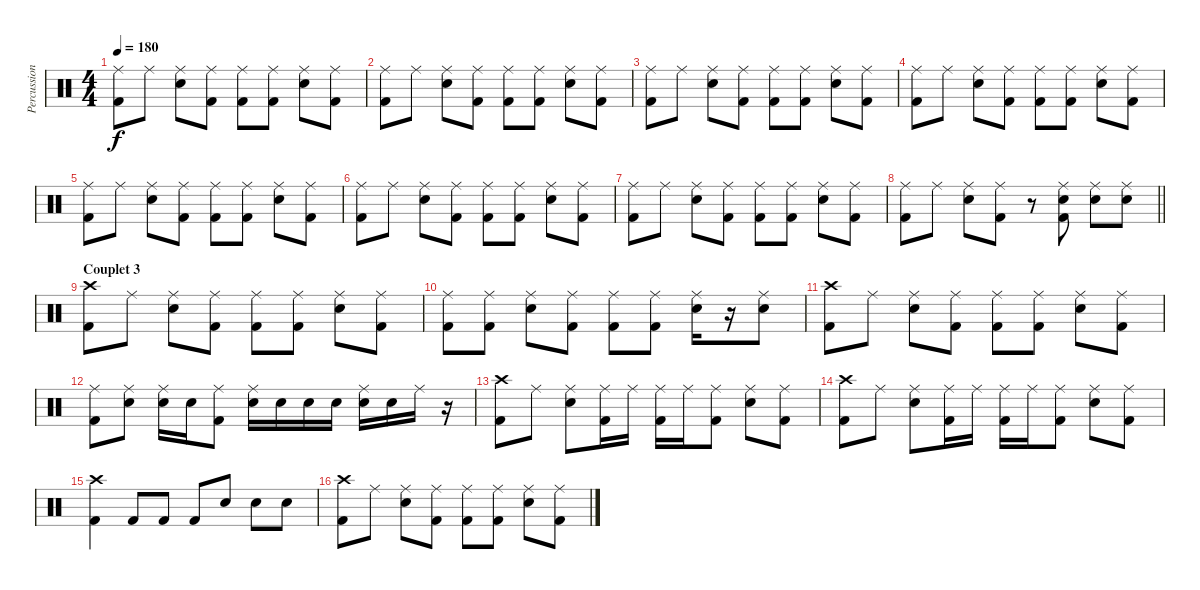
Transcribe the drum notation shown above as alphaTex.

\track ("Percussions" "Percussion") {instrument percussion}
\staff {score}
\articulation defaults
\ts (4 4)
\tempo 180
\clef neutral
\ks c
("Ride (middle)" "Kick (hit) 2").8{dy f} "Ride (middle)".8 ("Ride (middle)" "Snare (hit) 2").8 ("Ride (middle)" "Kick (hit) 2").8 ("Ride (middle)" "Kick (hit) 2").8 ("Ride (middle)" "Kick (hit) 2").8 ("Ride (middle)" "Snare (hit) 2").8 ("Ride (middle)" "Kick (hit) 2").8 |
("Ride (middle)" "Kick (hit) 2").8 "Ride (middle)".8 ("Ride (middle)" "Snare (hit) 2").8 ("Ride (middle)" "Kick (hit) 2").8 ("Ride (middle)" "Kick (hit) 2").8 ("Ride (middle)" "Kick (hit) 2").8 ("Ride (middle)" "Snare (hit) 2").8 ("Ride (middle)" "Kick (hit) 2").8 |
("Ride (middle)" "Kick (hit) 2").8 "Ride (middle)".8 ("Ride (middle)" "Snare (hit) 2").8 ("Ride (middle)" "Kick (hit) 2").8 ("Ride (middle)" "Kick (hit) 2").8 ("Ride (middle)" "Kick (hit) 2").8 ("Ride (middle)" "Snare (hit) 2").8 ("Ride (middle)" "Kick (hit) 2").8 |
("Ride (middle)" "Kick (hit) 2").8 "Ride (middle)".8 ("Ride (middle)" "Snare (hit) 2").8 ("Ride (middle)" "Kick (hit) 2").8 ("Ride (middle)" "Kick (hit) 2").8 ("Ride (middle)" "Kick (hit) 2").8 ("Ride (middle)" "Snare (hit) 2").8 ("Ride (middle)" "Kick (hit) 2").8 |
("Ride (middle)" "Kick (hit) 2").8 "Ride (middle)".8 ("Ride (middle)" "Snare (hit) 2").8 ("Ride (middle)" "Kick (hit) 2").8 ("Ride (middle)" "Kick (hit) 2").8 ("Ride (middle)" "Kick (hit) 2").8 ("Ride (middle)" "Snare (hit) 2").8 ("Ride (middle)" "Kick (hit) 2").8 |
("Ride (middle)" "Kick (hit) 2").8 "Ride (middle)".8 ("Ride (middle)" "Snare (hit) 2").8 ("Ride (middle)" "Kick (hit) 2").8 ("Ride (middle)" "Kick (hit) 2").8 ("Ride (middle)" "Kick (hit) 2").8 ("Ride (middle)" "Snare (hit) 2").8 ("Ride (middle)" "Kick (hit) 2").8 |
("Ride (middle)" "Kick (hit) 2").8 "Ride (middle)".8 ("Ride (middle)" "Snare (hit) 2").8 ("Ride (middle)" "Kick (hit) 2").8 ("Ride (middle)" "Kick (hit) 2").8 ("Ride (middle)" "Kick (hit) 2").8 ("Ride (middle)" "Snare (hit) 2").8 ("Ride (middle)" "Kick (hit) 2").8 |
\barLineRight lightlight
("Ride (middle)" "Kick (hit) 2").8 "Ride (middle)".8 ("Ride (middle)" "Snare (hit) 2").8 ("Ride (middle)" "Kick (hit) 2").8 r.8 ("Ride (middle)" "Snare (hit) 2" "Kick (hit) 2").8 ("Ride (middle)" "Snare (hit) 2").8 ("Ride (middle)" "Snare (hit) 2").8 |
\section ("" "Couplet 3")
("Crash high (hit)" "Kick (hit) 2").8 "Ride (middle)".8 ("Ride (middle)" "Snare (hit) 2").8 ("Ride (middle)" "Kick (hit) 2").8 ("Ride (middle)" "Kick (hit) 2").8 ("Ride (middle)" "Kick (hit) 2").8 ("Ride (middle)" "Snare (hit) 2").8 ("Ride (middle)" "Kick (hit) 2").8 |
("Ride (middle)" "Kick (hit) 2").8 ("Ride (middle)" "Kick (hit) 2").8 ("Ride (middle)" "Snare (hit) 2").8 ("Ride (middle)" "Kick (hit) 2").8 ("Ride (middle)" "Kick (hit) 2").8 ("Ride (middle)" "Kick (hit) 2").8 ("Ride (middle)" "Snare (hit) 2").16 r.16 ("Ride (middle)" "Snare (hit) 2").8 |
("Crash high (hit)" "Kick (hit) 2").8 "Ride (middle)".8 ("Ride (middle)" "Snare (hit) 2").8 ("Ride (middle)" "Kick (hit) 2").8 ("Ride (middle)" "Kick (hit) 2").8 ("Ride (middle)" "Kick (hit) 2").8 ("Ride (middle)" "Snare (hit) 2").8 ("Ride (middle)" "Kick (hit) 2").8 |
("Ride (middle)" "Kick (hit) 2").8 ("Ride (middle)" "Snare (hit) 2").8 ("Ride (middle)" "Snare (hit) 2").16 "Snare (hit) 2".16 ("Ride (middle)" "Kick (hit) 2").8 ("Ride (middle)" "Snare (hit) 2").16 "Snare (hit) 2".16 "Snare (hit) 2".16 "Snare (hit) 2".16 ("Ride (middle)" "Snare (hit) 2").16 "Snare (hit) 2".16 "Ride (middle)".16 r.16 |
("Crash high (hit)" "Kick (hit) 2").8 "Ride (middle)".8 ("Ride (middle)" "Snare (hit) 2").8 ("Ride (middle)" "Kick (hit) 2").16 "Ride (middle)".16 ("Ride (middle)" "Kick (hit) 2").16 "Ride (middle)".16 ("Ride (middle)" "Kick (hit) 2").8 ("Ride (middle)" "Snare (hit) 2").8 ("Ride (middle)" "Kick (hit) 2").8 |
("Crash high (hit)" "Kick (hit) 2").8 "Ride (middle)".8 ("Ride (middle)" "Snare (hit) 2").8 ("Ride (middle)" "Kick (hit) 2").16 "Ride (middle)".16 ("Ride (middle)" "Kick (hit) 2").16 "Ride (middle)".16 ("Ride (middle)" "Kick (hit) 2").8 ("Ride (middle)" "Snare (hit) 2").8 ("Ride (middle)" "Kick (hit) 2").8 |
("Crash high (hit)" "Kick (hit) 2").4 "Kick (hit) 2".8 "Kick (hit) 2".8 "Kick (hit) 2".8 "Snare (hit) 2".8 "Snare (hit) 2".8 "Snare (hit) 2".8 |
("Crash high (hit)" "Kick (hit) 2").8 "Ride (middle)".8 ("Ride (middle)" "Snare (hit) 2").8 ("Ride (middle)" "Kick (hit) 2").8 ("Ride (middle)" "Kick (hit) 2").8 ("Ride (middle)" "Kick (hit) 2").8 ("Ride (middle)" "Snare (hit) 2").8 ("Ride (middle)" "Kick (hit) 2").8
